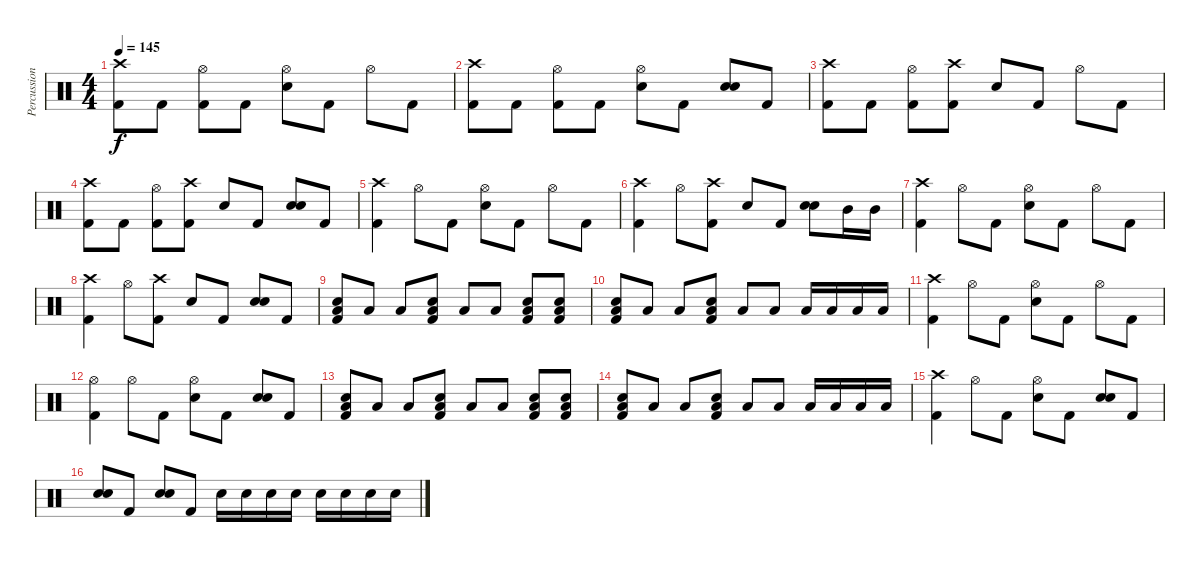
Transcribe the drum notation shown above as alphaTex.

\track ("Percussion" "Percussion") {instrument percussion}
\staff {score}
\articulation defaults
\ts (4 4)
\tempo 145
\clef neutral
\ks c
("Crash high (hit)" "Kick (hit) 2").8{dy f} "Kick (hit) 2".8 ("Hi-Hat (open)" "Kick (hit) 2").8 "Kick (hit) 2".8 ("Hi-Hat (open)" "Snare (hit) 2").8 "Kick (hit) 2".8 "Hi-Hat (open)".8 "Kick (hit) 2".8 |
("Crash high (hit)" "Kick (hit) 2").8 "Kick (hit) 2".8 ("Hi-Hat (open)" "Kick (hit) 2").8 "Kick (hit) 2".8 ("Hi-Hat (open)" "Snare (hit) 2").8 "Kick (hit) 2".8 ("Snare (hit) 2" "Snare (hit) 2").8{bd 240} "Kick (hit) 2".8 |
("Crash high (hit)" "Kick (hit) 2").8 "Kick (hit) 2".8 ("Hi-Hat (open)" "Kick (hit) 2").8 ("Crash high (hit)" "Kick (hit) 2").8 "Snare (hit) 2".8 "Kick (hit) 2".8 "Hi-Hat (open)".8 "Kick (hit) 2".8 |
("Crash high (hit)" "Kick (hit) 2").8 "Kick (hit) 2".8 ("Hi-Hat (open)" "Kick (hit) 2").8 ("Crash high (hit)" "Kick (hit) 2").8 "Snare (hit) 2".8 "Kick (hit) 2".8 ("Snare (hit) 2" "Snare (hit) 2").8{bd 240} "Kick (hit) 2".8 |
("Crash high (hit)" "Kick (hit) 2").4 "Hi-Hat (open)".8 "Kick (hit) 2".8 ("Hi-Hat (open)" "Snare (hit) 2").8 "Kick (hit) 2".8 "Hi-Hat (open)".8 "Kick (hit) 2".8 |
("Crash high (hit)" "Kick (hit) 2").4 "Hi-Hat (open)".8 ("Crash high (hit)" "Kick (hit) 2").8 "Snare (hit) 2".8 "Kick (hit) 2".8 ("Snare (hit) 2" "Snare (hit) 2").8{bd 240} "Mid Tom (hit)".16 "Mid Tom (hit)".16 |
("Crash high (hit)" "Kick (hit) 2").4 "Hi-Hat (open)".8 "Kick (hit) 2".8 ("Hi-Hat (open)" "Snare (hit) 2").8 "Kick (hit) 2".8 "Hi-Hat (open)".8 "Kick (hit) 2".8 |
("Crash high (hit)" "Kick (hit) 2").4 "Hi-Hat (open)".8 ("Crash high (hit)" "Kick (hit) 2").8 "Snare (hit) 2".8 "Kick (hit) 2".8 ("Snare (hit) 2" "Snare (hit) 2").8{bd 240} "Kick (hit) 2".8 |
("Low Floor Tom (hit)" "Snare (hit) 2" "Kick (hit) 2").8 "Low Floor Tom (hit)".8 "Low Floor Tom (hit)".8 ("Low Floor Tom (hit)" "Snare (hit) 2" "Kick (hit) 2").8 "Low Floor Tom (hit)".8 "Low Floor Tom (hit)".8 ("Low Floor Tom (hit)" "Snare (hit) 2" "Kick (hit) 2").8 ("Low Floor Tom (hit)" "Snare (hit) 2" "Kick (hit) 2").8 |
("Low Floor Tom (hit)" "Snare (hit) 2" "Kick (hit) 2").8 "Low Floor Tom (hit)".8 "Low Floor Tom (hit)".8 ("Low Floor Tom (hit)" "Snare (hit) 2" "Kick (hit) 2").8 "Low Floor Tom (hit)".8 "Low Floor Tom (hit)".8 "Low Tom (hit)".16 "Low Tom (hit)".16 "Low Tom (hit)".16 "Low Tom (hit)".16 |
("Crash high (hit)" "Kick (hit) 2").4 "Hi-Hat (open)".8 "Kick (hit) 2".8 ("Hi-Hat (open)" "Snare (hit) 2").8 "Kick (hit) 2".8 "Hi-Hat (open)".8 "Kick (hit) 2".8 |
("Hi-Hat (open)" "Kick (hit) 2").4 "Hi-Hat (open)".8 "Kick (hit) 2".8 ("Hi-Hat (open)" "Snare (hit) 2").8 "Kick (hit) 2".8 ("Snare (hit) 2" "Snare (hit) 2").8{bd 240} "Kick (hit) 2".8 |
("Low Floor Tom (hit)" "Snare (hit) 2" "Kick (hit) 2").8 "Low Floor Tom (hit)".8 "Low Floor Tom (hit)".8 ("Low Floor Tom (hit)" "Snare (hit) 2" "Kick (hit) 2").8 "Low Floor Tom (hit)".8 "Low Floor Tom (hit)".8 ("Low Floor Tom (hit)" "Snare (hit) 2" "Kick (hit) 2").8 ("Low Floor Tom (hit)" "Snare (hit) 2" "Kick (hit) 2").8 |
("Low Floor Tom (hit)" "Snare (hit) 2" "Kick (hit) 2").8 "Low Floor Tom (hit)".8 "Low Floor Tom (hit)".8 ("Low Floor Tom (hit)" "Snare (hit) 2" "Kick (hit) 2").8 "Low Floor Tom (hit)".8 "Low Floor Tom (hit)".8 "Low Tom (hit)".16 "Low Tom (hit)".16 "Low Tom (hit)".16 "Low Tom (hit)".16 |
("Crash high (hit)" "Kick (hit) 2").4 "Hi-Hat (open)".8 "Kick (hit) 2".8 ("Hi-Hat (open)" "Snare (hit) 2").8 "Kick (hit) 2".8 ("Snare (hit) 2" "Snare (hit) 2").8{bd 240} "Kick (hit) 2".8 |
("Snare (hit) 2" "Snare (hit) 2").8{bd 240} "Kick (hit) 2".8 ("Snare (hit) 2" "Snare (hit) 2").8{bd 240} "Kick (hit) 2".8 "Snare (hit) 2".16 "Snare (hit) 2".16 "Snare (hit) 2".16 "Snare (hit) 2".16 "Snare (hit) 2".16 "Snare (hit) 2".16 "Snare (hit) 2".16 "Snare (hit) 2".16
